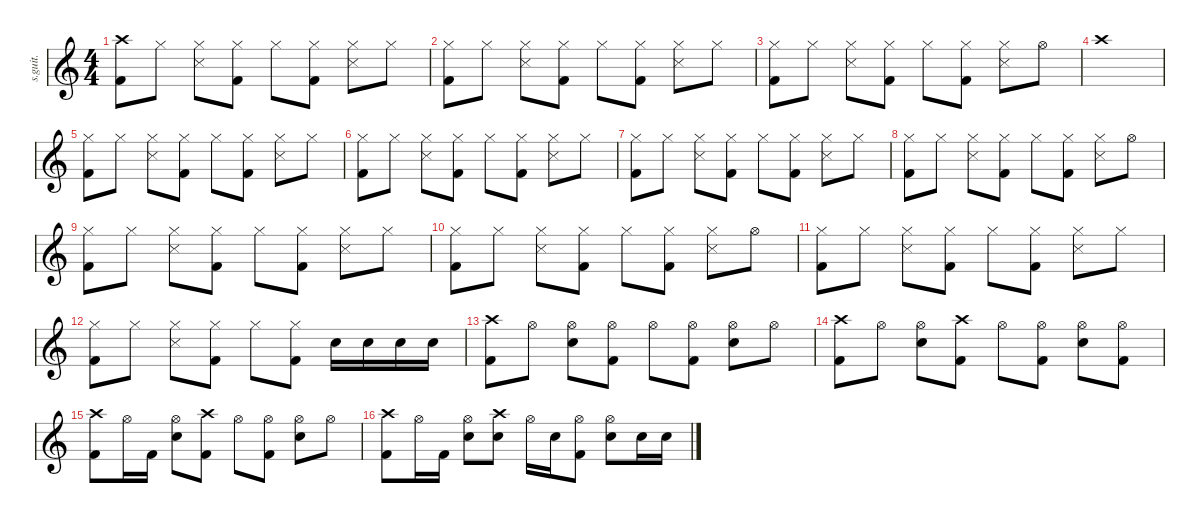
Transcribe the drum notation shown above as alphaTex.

\defaultSystemsLayout 4
\hideDynamics
\bracketExtendMode nobrackets
\track ("" "s.guit.") {instrument percussion}
\staff {score}
\articulation defaults
\ts (4 4)
\beaming (8 2 2 2 2)
\tempo (95 hide)
\clef g2
\ks c
("Crash high (hit)" "Kick (hit) 2").8{dy f} "Hi-Hat (closed)".8 ("Hi-Hat (closed)" "Snare (side stick) 3").8 ("Hi-Hat (closed)" "Kick (hit) 2").8 "Hi-Hat (closed)".8 ("Hi-Hat (closed)" "Kick (hit) 2").8 ("Hi-Hat (closed)" "Snare (side stick) 3").8 "Hi-Hat (closed)".8 |
("Hi-Hat (closed)" "Kick (hit) 2").8 "Hi-Hat (closed)".8 ("Hi-Hat (closed)" "Snare (side stick) 3").8 ("Hi-Hat (closed)" "Kick (hit) 2").8 "Hi-Hat (closed)".8 ("Hi-Hat (closed)" "Kick (hit) 2").8 ("Hi-Hat (closed)" "Snare (side stick) 3").8 "Hi-Hat (closed)".8 |
("Hi-Hat (closed)" "Kick (hit) 2").8 "Hi-Hat (closed)".8 ("Hi-Hat (closed)" "Snare (side stick) 3").8 ("Hi-Hat (closed)" "Kick (hit) 2").8 "Hi-Hat (closed)".8 ("Hi-Hat (closed)" "Kick (hit) 2").8 ("Hi-Hat (closed)" "Snare (side stick) 3").8 "Hi-Hat (open)".8 |
"Crash high (hit)".1 |
("Hi-Hat (closed)" "Kick (hit) 2").8 "Hi-Hat (closed)".8 ("Hi-Hat (closed)" "Snare (side stick) 3").8 ("Hi-Hat (closed)" "Kick (hit) 2").8 "Hi-Hat (closed)".8 ("Hi-Hat (closed)" "Kick (hit) 2").8 ("Hi-Hat (closed)" "Snare (side stick) 3").8 "Hi-Hat (closed)".8 |
("Hi-Hat (closed)" "Kick (hit) 2").8 "Hi-Hat (closed)".8 ("Hi-Hat (closed)" "Snare (side stick) 3").8 ("Hi-Hat (closed)" "Kick (hit) 2").8 "Hi-Hat (closed)".8 ("Hi-Hat (closed)" "Kick (hit) 2").8 ("Hi-Hat (closed)" "Snare (side stick) 3").8 "Hi-Hat (closed)".8 |
("Hi-Hat (closed)" "Kick (hit) 2").8 "Hi-Hat (closed)".8 ("Hi-Hat (closed)" "Snare (side stick) 3").8 ("Hi-Hat (closed)" "Kick (hit) 2").8 "Hi-Hat (closed)".8 ("Hi-Hat (closed)" "Kick (hit) 2").8 ("Hi-Hat (closed)" "Snare (side stick) 3").8 "Hi-Hat (closed)".8 |
("Hi-Hat (closed)" "Kick (hit) 2").8 "Hi-Hat (closed)".8 ("Hi-Hat (closed)" "Snare (side stick) 3").8 ("Hi-Hat (closed)" "Kick (hit) 2").8 "Hi-Hat (closed)".8 ("Hi-Hat (closed)" "Kick (hit) 2").8 ("Hi-Hat (closed)" "Snare (side stick) 3").8 "Hi-Hat (open)".8 |
("Hi-Hat (closed)" "Kick (hit) 2").8 "Hi-Hat (closed)".8 ("Hi-Hat (closed)" "Snare (side stick) 3").8 ("Hi-Hat (closed)" "Kick (hit) 2").8 "Hi-Hat (closed)".8 ("Hi-Hat (closed)" "Kick (hit) 2").8 ("Hi-Hat (closed)" "Snare (side stick) 3").8 "Hi-Hat (closed)".8 |
("Hi-Hat (closed)" "Kick (hit) 2").8 "Hi-Hat (closed)".8 ("Hi-Hat (closed)" "Snare (side stick) 3").8 ("Hi-Hat (closed)" "Kick (hit) 2").8 "Hi-Hat (closed)".8 ("Hi-Hat (closed)" "Kick (hit) 2").8 ("Hi-Hat (closed)" "Snare (side stick) 3").8 "Hi-Hat (open)".8 |
("Hi-Hat (closed)" "Kick (hit) 2").8 "Hi-Hat (closed)".8 ("Hi-Hat (closed)" "Snare (side stick) 3").8 ("Hi-Hat (closed)" "Kick (hit) 2").8 "Hi-Hat (closed)".8 ("Hi-Hat (closed)" "Kick (hit) 2").8 ("Hi-Hat (closed)" "Snare (side stick) 3").8 "Hi-Hat (closed)".8 |
("Hi-Hat (closed)" "Kick (hit) 2").8 "Hi-Hat (closed)".8 ("Hi-Hat (closed)" "Snare (side stick) 3").8 ("Hi-Hat (closed)" "Kick (hit) 2").8 "Hi-Hat (closed)".8 ("Hi-Hat (closed)" "Kick (hit) 2").8 "Snare (hit) 2".16 "Snare (hit) 2".16 "Snare (hit) 2".16 "Snare (hit) 2".16 |
("Crash high (hit)" "Kick (hit) 2").8 "Hi-Hat (open)".8 ("Hi-Hat (open)" "Snare (hit) 2").8 ("Hi-Hat (open)" "Kick (hit) 2").8 "Hi-Hat (open)".8 ("Hi-Hat (open)" "Kick (hit) 2").8 ("Hi-Hat (open)" "Snare (hit) 2").8 "Hi-Hat (open)".8 |
("Crash high (hit)" "Kick (hit) 2").8 "Hi-Hat (open)".8 ("Hi-Hat (open)" "Snare (hit) 2").8 ("Crash high (hit)" "Kick (hit) 2").8 "Hi-Hat (open)".8 ("Hi-Hat (open)" "Kick (hit) 2").8 ("Hi-Hat (open)" "Snare (hit) 2").8 ("Hi-Hat (open)" "Kick (hit) 2").8 |
("Crash high (hit)" "Kick (hit) 2").8 "Hi-Hat (open)".16 "Kick (hit) 2".16 ("Hi-Hat (open)" "Snare (hit) 2").8 ("Crash high (hit)" "Kick (hit) 2").8 "Hi-Hat (open)".8 ("Hi-Hat (open)" "Kick (hit) 2").8 ("Hi-Hat (open)" "Snare (hit) 2").8 "Hi-Hat (open)".8 |
("Crash high (hit)" "Kick (hit) 2").8 "Hi-Hat (open)".16 "Kick (hit) 2".16 ("Hi-Hat (open)" "Snare (hit) 2").8 ("Crash high (hit)" "Snare (hit) 2").8 "Hi-Hat (open)".16 "Snare (hit) 2".16 ("Hi-Hat (open)" "Kick (hit) 2").8 ("Hi-Hat (open)" "Snare (hit) 2").8 "Snare (hit) 2".16 "Snare (hit) 2".16
